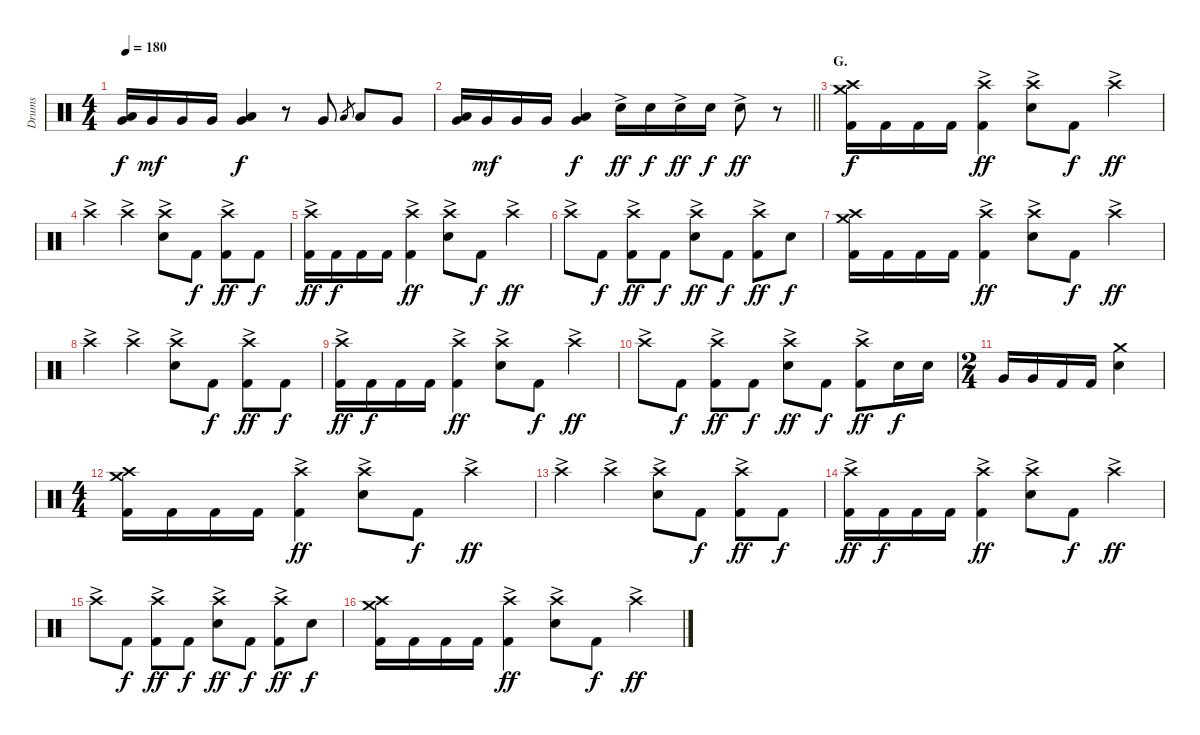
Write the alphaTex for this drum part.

\track ("Drums" "Drums") {instrument percussion}
\staff {score}
\articulation defaults
\ts (4 4)
\tempo 180
\clef neutral
\ks c
("Low Tom (hit)" "Very Low Tom (hit)").16{bu 120 dy f volume 14} "Very Low Tom (hit)".16{dy mf} "Very Low Tom (hit)".16 "Very Low Tom (hit)".16 ("Low Tom (hit)" "Very Low Tom (hit)").4{bu 120 dy f} r.8 "Very Low Tom (hit)".8 "Low Tom (hit)".8{gr} "Low Tom (hit)".8 "Very Low Tom (hit)".8 |
\barLineRight lightlight
("Low Tom (hit)" "Very Low Tom (hit)").16{bu 120} "Very Low Tom (hit)".16{dy mf} "Very Low Tom (hit)".16 "Very Low Tom (hit)".16 ("Low Tom (hit)" "Very Low Tom (hit)").4{bu 120 dy f} "Electric Snare (hit)"{ac}.16{dy ff} "Electric Snare (hit)".16{dy f} "Electric Snare (hit)"{ac}.16{dy ff} "Electric Snare (hit)".16{dy f} "Electric Snare (hit)"{ac}.8{dy ff} r.8 |
\section ("" "G.")
("Crash medium (hit)" "Crash high (hit)" "Kick (hit) 2").16{dy f} "Kick (hit) 2".16 "Kick (hit) 2".16 "Kick (hit) 2".16 ("Crash high (hit)"{ac} "Kick (hit) 2").4{dy ff} ("Crash high (hit)"{ac} "Electric Snare (hit)").8 "Kick (hit) 2".8{dy f} "Crash high (hit)"{ac}.4{dy ff} |
"Crash high (hit)"{ac}.4 "Crash high (hit)"{ac}.4 ("Crash high (hit)"{ac} "Electric Snare (hit)").8 "Kick (hit) 2".8{dy f} ("Crash high (hit)"{ac} "Kick (hit) 2").8{dy ff} "Kick (hit) 2".8{dy f} |
("Crash high (hit)"{ac} "Kick (hit) 2").16{dy ff} "Kick (hit) 2".16{dy f} "Kick (hit) 2".16 "Kick (hit) 2".16 ("Crash high (hit)"{ac} "Kick (hit) 2").4{dy ff} ("Crash high (hit)"{ac} "Electric Snare (hit)").8 "Kick (hit) 2".8{dy f} "Crash high (hit)"{ac}.4{dy ff} |
"Crash high (hit)"{ac}.8 "Kick (hit) 2".8{dy f} ("Crash high (hit)"{ac} "Kick (hit) 2").8{dy ff} "Kick (hit) 2".8{dy f} ("Crash high (hit)"{ac} "Electric Snare (hit)").8{dy ff} "Kick (hit) 2".8{dy f} ("Crash high (hit)"{ac} "Kick (hit) 2").8{dy ff} "Electric Snare (hit)".8{dy f} |
("Crash medium (hit)" "Crash high (hit)" "Kick (hit) 2").16 "Kick (hit) 2".16 "Kick (hit) 2".16 "Kick (hit) 2".16 ("Crash high (hit)"{ac} "Kick (hit) 2").4{dy ff} ("Crash high (hit)"{ac} "Electric Snare (hit)").8 "Kick (hit) 2".8{dy f} "Crash high (hit)"{ac}.4{dy ff} |
"Crash high (hit)"{ac}.4 "Crash high (hit)"{ac}.4 ("Crash high (hit)"{ac} "Electric Snare (hit)").8 "Kick (hit) 2".8{dy f} ("Crash high (hit)"{ac} "Kick (hit) 2").8{dy ff} "Kick (hit) 2".8{dy f} |
("Crash high (hit)"{ac} "Kick (hit) 2").16{dy ff} "Kick (hit) 2".16{dy f} "Kick (hit) 2".16 "Kick (hit) 2".16 ("Crash high (hit)"{ac} "Kick (hit) 2").4{dy ff} ("Crash high (hit)"{ac} "Electric Snare (hit)").8 "Kick (hit) 2".8{dy f} "Crash high (hit)"{ac}.4{dy ff} |
"Crash high (hit)"{ac}.8 "Kick (hit) 2".8{dy f} ("Crash high (hit)"{ac} "Kick (hit) 2").8{dy ff} "Kick (hit) 2".8{dy f} ("Crash high (hit)"{ac} "Electric Snare (hit)").8{dy ff} "Kick (hit) 2".8{dy f} ("Crash high (hit)"{ac} "Kick (hit) 2").8{dy ff} "Electric Snare (hit)".16{dy f} "Electric Snare (hit)".16 |
\ts (2 4)
"Very Low Tom (hit)".16 "Very Low Tom (hit)".16 "Kick (hit) 2".16 "Kick (hit) 2".16 ("Crash medium (hit)" "Electric Snare (hit)").4 |
\ts (4 4)
("Crash medium (hit)" "Crash high (hit)" "Kick (hit) 2").16 "Kick (hit) 2".16 "Kick (hit) 2".16 "Kick (hit) 2".16 ("Crash high (hit)"{ac} "Kick (hit) 2").4{dy ff} ("Crash high (hit)"{ac} "Electric Snare (hit)").8 "Kick (hit) 2".8{dy f} "Crash high (hit)"{ac}.4{dy ff} |
"Crash high (hit)"{ac}.4 "Crash high (hit)"{ac}.4 ("Crash high (hit)"{ac} "Electric Snare (hit)").8 "Kick (hit) 2".8{dy f} ("Crash high (hit)"{ac} "Kick (hit) 2").8{dy ff} "Kick (hit) 2".8{dy f} |
("Crash high (hit)"{ac} "Kick (hit) 2").16{dy ff} "Kick (hit) 2".16{dy f} "Kick (hit) 2".16 "Kick (hit) 2".16 ("Crash high (hit)"{ac} "Kick (hit) 2").4{dy ff} ("Crash high (hit)"{ac} "Electric Snare (hit)").8 "Kick (hit) 2".8{dy f} "Crash high (hit)"{ac}.4{dy ff} |
"Crash high (hit)"{ac}.8 "Kick (hit) 2".8{dy f} ("Crash high (hit)"{ac} "Kick (hit) 2").8{dy ff} "Kick (hit) 2".8{dy f} ("Crash high (hit)"{ac} "Electric Snare (hit)").8{dy ff} "Kick (hit) 2".8{dy f} ("Crash high (hit)"{ac} "Kick (hit) 2").8{dy ff} "Electric Snare (hit)".8{dy f} |
("Crash medium (hit)" "Crash high (hit)" "Kick (hit) 2").16 "Kick (hit) 2".16 "Kick (hit) 2".16 "Kick (hit) 2".16 ("Crash high (hit)"{ac} "Kick (hit) 2").4{dy ff} ("Crash high (hit)"{ac} "Electric Snare (hit)").8 "Kick (hit) 2".8{dy f} "Crash high (hit)"{ac}.4{dy ff}
